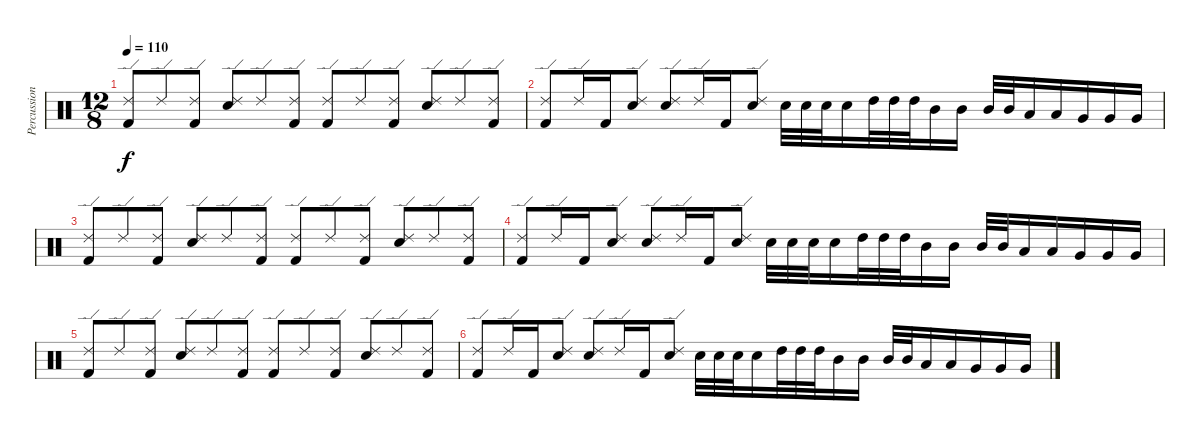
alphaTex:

\track ("Percussions" "Percussion") {instrument percussion}
\staff {score}
\articulation defaults
\ts (12 8)
\tempo 110
\clef neutral
\ks c
("Ride (edge) 2" "Kick (hit) 2").8{dy f} "Ride (edge) 2".8 ("Ride (edge) 2" "Kick (hit) 2").8 ("Ride (edge) 2" "Electric Snare (hit)").8 "Ride (edge) 2".8 ("Ride (edge) 2" "Kick (hit) 2").8 ("Ride (edge) 2" "Kick (hit) 2").8 "Ride (edge) 2".8 ("Ride (edge) 2" "Kick (hit) 2").8 ("Ride (edge) 2" "Electric Snare (hit)").8 "Ride (edge) 2".8 ("Ride (edge) 2" "Kick (hit) 2").8 |
("Ride (edge) 2" "Kick (hit) 2").8 "Ride (edge) 2".16 "Kick (hit) 2".16 ("Ride (edge) 2" "Electric Snare (hit)").8 ("Ride (edge) 2" "Electric Snare (hit)").8 "Ride (edge) 2".16 "Kick (hit) 2".16 ("Ride (edge) 2" "Electric Snare (hit)").8 "Electric Snare (hit)".32 "Electric Snare (hit)".32 "Electric Snare (hit)".32 "Electric Snare (hit)".16 "High Tom (hit)".32 "High Tom (hit)".32 "High Tom (hit)".32 "Mid Tom (hit)".16 "Mid Tom (hit)".16 "Mid Tom (hit)".32 "Mid Tom (hit)".32 "Low Tom (hit)".16 "Low Tom (hit)".16 "Very Low Tom (hit)".16 "Very Low Tom (hit)".16 "Very Low Tom (hit)".16 |
("Ride (edge) 2" "Kick (hit) 2").8 "Ride (edge) 2".8 ("Ride (edge) 2" "Kick (hit) 2").8 ("Ride (edge) 2" "Electric Snare (hit)").8 "Ride (edge) 2".8 ("Ride (edge) 2" "Kick (hit) 2").8 ("Ride (edge) 2" "Kick (hit) 2").8 "Ride (edge) 2".8 ("Ride (edge) 2" "Kick (hit) 2").8 ("Ride (edge) 2" "Electric Snare (hit)").8 "Ride (edge) 2".8 ("Ride (edge) 2" "Kick (hit) 2").8 |
("Ride (edge) 2" "Kick (hit) 2").8 "Ride (edge) 2".16 "Kick (hit) 2".16 ("Ride (edge) 2" "Electric Snare (hit)").8 ("Ride (edge) 2" "Electric Snare (hit)").8 "Ride (edge) 2".16 "Kick (hit) 2".16 ("Ride (edge) 2" "Electric Snare (hit)").8 "Electric Snare (hit)".32 "Electric Snare (hit)".32 "Electric Snare (hit)".32 "Electric Snare (hit)".16 "High Tom (hit)".32 "High Tom (hit)".32 "High Tom (hit)".32 "Mid Tom (hit)".16 "Mid Tom (hit)".16 "Mid Tom (hit)".32 "Mid Tom (hit)".32 "Low Tom (hit)".16 "Low Tom (hit)".16 "Very Low Tom (hit)".16 "Very Low Tom (hit)".16 "Very Low Tom (hit)".16 |
("Ride (edge) 2" "Kick (hit) 2").8 "Ride (edge) 2".8 ("Ride (edge) 2" "Kick (hit) 2").8 ("Ride (edge) 2" "Electric Snare (hit)").8 "Ride (edge) 2".8 ("Ride (edge) 2" "Kick (hit) 2").8 ("Ride (edge) 2" "Kick (hit) 2").8 "Ride (edge) 2".8 ("Ride (edge) 2" "Kick (hit) 2").8 ("Ride (edge) 2" "Electric Snare (hit)").8 "Ride (edge) 2".8 ("Ride (edge) 2" "Kick (hit) 2").8 |
("Ride (edge) 2" "Kick (hit) 2").8 "Ride (edge) 2".16 "Kick (hit) 2".16 ("Ride (edge) 2" "Electric Snare (hit)").8 ("Ride (edge) 2" "Electric Snare (hit)").8 "Ride (edge) 2".16 "Kick (hit) 2".16 ("Ride (edge) 2" "Electric Snare (hit)").8 "Electric Snare (hit)".32 "Electric Snare (hit)".32 "Electric Snare (hit)".32 "Electric Snare (hit)".16 "High Tom (hit)".32 "High Tom (hit)".32 "High Tom (hit)".32 "Mid Tom (hit)".16 "Mid Tom (hit)".16 "Mid Tom (hit)".32 "Mid Tom (hit)".32 "Low Tom (hit)".16 "Low Tom (hit)".16 "Very Low Tom (hit)".16 "Very Low Tom (hit)".16 "Very Low Tom (hit)".16
